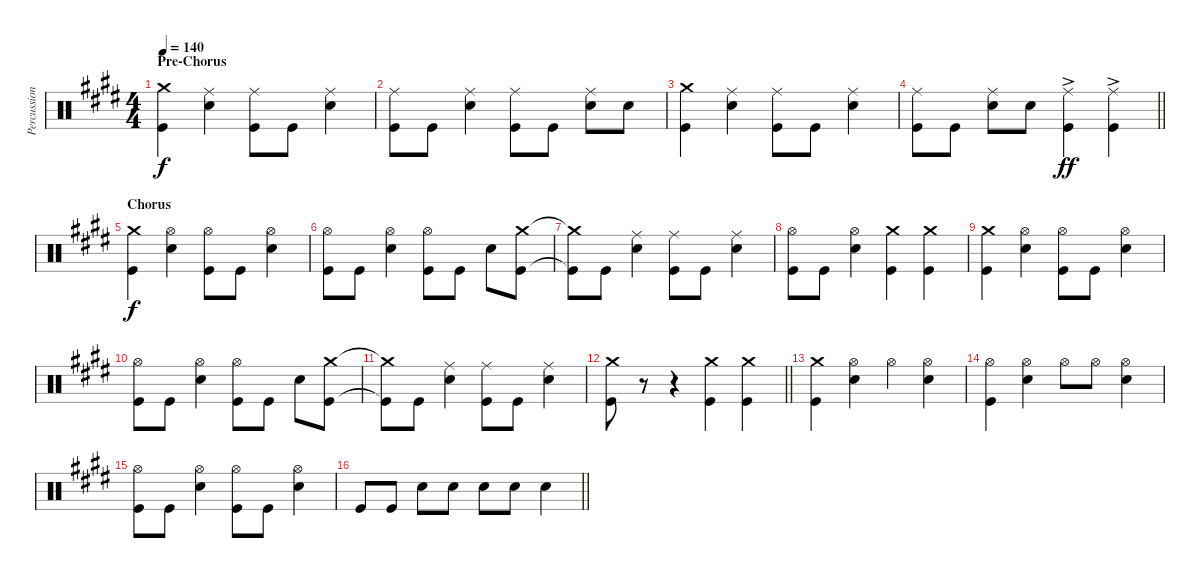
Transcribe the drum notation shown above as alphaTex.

\track ("Percussion" "Percussion") {instrument percussion}
\staff {score}
\articulation defaults
\ts (4 4)
\section ("" "Pre-Chorus")
\tempo 140
\clef neutral
\ks e
("Crash medium (hit)" "Kick (hit)").4{dy f} ("Ride (middle)" "Snare (hit) 2").4 ("Ride (middle)" "Kick (hit)").8 "Kick (hit)".8 ("Ride (middle)" "Snare (hit) 2").4 |
("Ride (middle)" "Kick (hit)").8 "Kick (hit)".8 ("Ride (middle)" "Snare (hit) 2").4 ("Ride (middle)" "Kick (hit)").8 "Kick (hit)".8 ("Ride (middle)" "Snare (hit) 2").8 "Snare (hit) 2".8 |
("Crash medium (hit)" "Kick (hit)").4 ("Ride (middle)" "Snare (hit) 2").4 ("Ride (middle)" "Kick (hit)").8 "Kick (hit)".8 ("Ride (middle)" "Snare (hit) 2").4 |
\barLineRight lightlight
("Ride (middle)" "Kick (hit)").8 "Kick (hit)".8 ("Ride (middle)" "Snare (hit) 2").8 "Snare (hit) 2".8 ("Ride (middle)" "Kick (hit)"{ac}).4{dy ff} ("Ride (middle)" "Kick (hit)"{ac}).4 |
\section ("" "Chorus")
("Crash medium (hit)" "Kick (hit)").4{dy f} ("Hi-Hat (open)" "Snare (hit) 2").4 ("Hi-Hat (open)" "Kick (hit)").8 "Kick (hit)".8 ("Hi-Hat (open)" "Snare (hit) 2").4 |
("Hi-Hat (open)" "Kick (hit)").8 "Kick (hit)".8 ("Hi-Hat (open)" "Snare (hit) 2").4 ("Hi-Hat (open)" "Kick (hit)").8 "Kick (hit)".8 "Snare (hit) 2".8 ("Crash medium (hit)" "Kick (hit)").8 |
("Crash medium (hit)"{t} "Kick (hit)"{t}).8 "Kick (hit)".8 ("Ride (middle)" "Snare (hit) 2").4 ("Ride (middle)" "Kick (hit)").8 "Kick (hit)".8 ("Ride (middle)" "Snare (hit) 2").4 |
("Hi-Hat (open)" "Kick (hit)").8 "Kick (hit)".8 ("Hi-Hat (open)" "Snare (hit) 2").4 ("Crash medium (hit)" "Kick (hit)").4 ("Crash medium (hit)" "Kick (hit)").4 |
("Crash medium (hit)" "Kick (hit)").4 ("Hi-Hat (open)" "Snare (hit) 2").4 ("Hi-Hat (open)" "Kick (hit)").8 "Kick (hit)".8 ("Hi-Hat (open)" "Snare (hit) 2").4 |
("Hi-Hat (open)" "Kick (hit)").8 "Kick (hit)".8 ("Hi-Hat (open)" "Snare (hit) 2").4 ("Hi-Hat (open)" "Kick (hit)").8 "Kick (hit)".8 "Snare (hit) 2".8 ("Crash medium (hit)" "Kick (hit)").8 |
("Crash medium (hit)"{t} "Kick (hit)"{t}).8 "Kick (hit)".8 ("Ride (middle)" "Snare (hit) 2").4 ("Ride (middle)" "Kick (hit)").8 "Kick (hit)".8 ("Ride (middle)" "Snare (hit) 2").4 |
\barLineRight lightlight
("Crash medium (hit)" "Kick (hit)").8 r.8 r.4 ("Crash medium (hit)" "Kick (hit)").4 ("Crash medium (hit)" "Kick (hit)").4 |
("Crash medium (hit)" "Kick (hit)").4 ("Hi-Hat (open)" "Snare (hit) 2").4 "Hi-Hat (open)".4 ("Hi-Hat (open)" "Snare (hit) 2").4 |
("Hi-Hat (open)" "Kick (hit)").4 ("Hi-Hat (open)" "Snare (hit) 2").4 "Hi-Hat (open)".8 "Hi-Hat (open)".8 ("Hi-Hat (open)" "Snare (hit) 2").4 |
("Hi-Hat (open)" "Kick (hit)").8 "Kick (hit)".8 ("Hi-Hat (open)" "Snare (hit) 2").4 ("Hi-Hat (open)" "Kick (hit)").8 "Kick (hit)".8 ("Hi-Hat (open)" "Snare (hit) 2").4 |
\barLineRight lightlight "Kick (hit)".8 "Kick (hit)".8 "Snare (hit) 2".8 "Snare (hit) 2".8 "Snare (hit) 2".8 "Snare (hit) 2".8 "Snare (hit) 2".4
